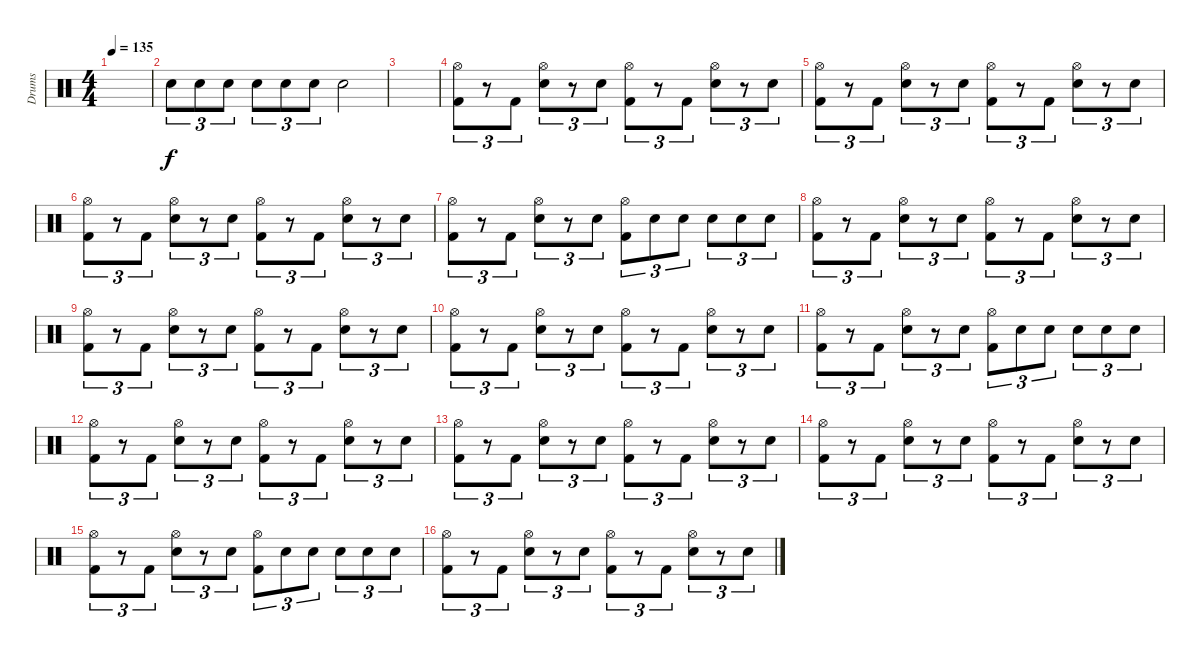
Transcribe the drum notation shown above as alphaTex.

\track ("Drums" "Drums") {instrument percussion}
\staff {score}
\articulation defaults
\ts (4 4)
\tempo 135
\clef neutral
\ks c
|
"Snare (hit) 2".8{tu (3 2)} "Snare (hit) 2".8{tu (3 2)} "Snare (hit) 2".8{tu (3 2)} "Snare (hit) 2".8{tu (3 2)} "Snare (hit) 2".8{tu (3 2)} "Snare (hit) 2".8{tu (3 2)} "Snare (hit) 2".2 |
|
("Kick (hit) 2" "Hi-Hat (open)").8{tu (3 2)} r.8{tu (3 2)} "Kick (hit) 2".8{tu (3 2)} ("Snare (hit) 2" "Hi-Hat (open)").8{tu (3 2)} r.8{tu (3 2)} "Snare (hit) 2".8{tu (3 2)} ("Kick (hit) 2" "Hi-Hat (open)").8{tu (3 2)} r.8{tu (3 2)} "Kick (hit) 2".8{tu (3 2)} ("Snare (hit) 2" "Hi-Hat (open)").8{tu (3 2)} r.8{tu (3 2)} "Snare (hit) 2".8{tu (3 2)} |
("Kick (hit) 2" "Hi-Hat (open)").8{tu (3 2)} r.8{tu (3 2)} "Kick (hit) 2".8{tu (3 2)} ("Snare (hit) 2" "Hi-Hat (open)").8{tu (3 2)} r.8{tu (3 2)} "Snare (hit) 2".8{tu (3 2)} ("Kick (hit) 2" "Hi-Hat (open)").8{tu (3 2)} r.8{tu (3 2)} "Kick (hit) 2".8{tu (3 2)} ("Snare (hit) 2" "Hi-Hat (open)").8{tu (3 2)} r.8{tu (3 2)} "Snare (hit) 2".8{tu (3 2)} |
("Kick (hit) 2" "Hi-Hat (open)").8{tu (3 2)} r.8{tu (3 2)} "Kick (hit) 2".8{tu (3 2)} ("Snare (hit) 2" "Hi-Hat (open)").8{tu (3 2)} r.8{tu (3 2)} "Snare (hit) 2".8{tu (3 2)} ("Kick (hit) 2" "Hi-Hat (open)").8{tu (3 2)} r.8{tu (3 2)} "Kick (hit) 2".8{tu (3 2)} ("Snare (hit) 2" "Hi-Hat (open)").8{tu (3 2)} r.8{tu (3 2)} "Snare (hit) 2".8{tu (3 2)} |
("Kick (hit) 2" "Hi-Hat (open)").8{tu (3 2)} r.8{tu (3 2)} "Kick (hit) 2".8{tu (3 2)} ("Snare (hit) 2" "Hi-Hat (open)").8{tu (3 2)} r.8{tu (3 2)} "Snare (hit) 2".8{tu (3 2)} ("Kick (hit) 2" "Hi-Hat (open)").8{tu (3 2)} "Snare (hit) 2".8{tu (3 2)} "Snare (hit) 2".8{tu (3 2)} "Snare (hit) 2".8{tu (3 2)} "Snare (hit) 2".8{tu (3 2)} "Snare (hit) 2".8{tu (3 2)} |
("Kick (hit) 2" "Hi-Hat (open)").8{tu (3 2)} r.8{tu (3 2)} "Kick (hit) 2".8{tu (3 2)} ("Snare (hit) 2" "Hi-Hat (open)").8{tu (3 2)} r.8{tu (3 2)} "Snare (hit) 2".8{tu (3 2)} ("Kick (hit) 2" "Hi-Hat (open)").8{tu (3 2)} r.8{tu (3 2)} "Kick (hit) 2".8{tu (3 2)} ("Snare (hit) 2" "Hi-Hat (open)").8{tu (3 2)} r.8{tu (3 2)} "Snare (hit) 2".8{tu (3 2)} |
("Kick (hit) 2" "Hi-Hat (open)").8{tu (3 2)} r.8{tu (3 2)} "Kick (hit) 2".8{tu (3 2)} ("Snare (hit) 2" "Hi-Hat (open)").8{tu (3 2)} r.8{tu (3 2)} "Snare (hit) 2".8{tu (3 2)} ("Kick (hit) 2" "Hi-Hat (open)").8{tu (3 2)} r.8{tu (3 2)} "Kick (hit) 2".8{tu (3 2)} ("Snare (hit) 2" "Hi-Hat (open)").8{tu (3 2)} r.8{tu (3 2)} "Snare (hit) 2".8{tu (3 2)} |
("Kick (hit) 2" "Hi-Hat (open)").8{tu (3 2)} r.8{tu (3 2)} "Kick (hit) 2".8{tu (3 2)} ("Snare (hit) 2" "Hi-Hat (open)").8{tu (3 2)} r.8{tu (3 2)} "Snare (hit) 2".8{tu (3 2)} ("Kick (hit) 2" "Hi-Hat (open)").8{tu (3 2)} r.8{tu (3 2)} "Kick (hit) 2".8{tu (3 2)} ("Snare (hit) 2" "Hi-Hat (open)").8{tu (3 2)} r.8{tu (3 2)} "Snare (hit) 2".8{tu (3 2)} |
("Kick (hit) 2" "Hi-Hat (open)").8{tu (3 2)} r.8{tu (3 2)} "Kick (hit) 2".8{tu (3 2)} ("Snare (hit) 2" "Hi-Hat (open)").8{tu (3 2)} r.8{tu (3 2)} "Snare (hit) 2".8{tu (3 2)} ("Kick (hit) 2" "Hi-Hat (open)").8{tu (3 2)} "Snare (hit) 2".8{tu (3 2)} "Snare (hit) 2".8{tu (3 2)} "Snare (hit) 2".8{tu (3 2)} "Snare (hit) 2".8{tu (3 2)} "Snare (hit) 2".8{tu (3 2)} |
("Kick (hit) 2" "Hi-Hat (open)").8{tu (3 2)} r.8{tu (3 2)} "Kick (hit) 2".8{tu (3 2)} ("Snare (hit) 2" "Hi-Hat (open)").8{tu (3 2)} r.8{tu (3 2)} "Snare (hit) 2".8{tu (3 2)} ("Kick (hit) 2" "Hi-Hat (open)").8{tu (3 2)} r.8{tu (3 2)} "Kick (hit) 2".8{tu (3 2)} ("Snare (hit) 2" "Hi-Hat (open)").8{tu (3 2)} r.8{tu (3 2)} "Snare (hit) 2".8{tu (3 2)} |
("Kick (hit) 2" "Hi-Hat (open)").8{tu (3 2)} r.8{tu (3 2)} "Kick (hit) 2".8{tu (3 2)} ("Snare (hit) 2" "Hi-Hat (open)").8{tu (3 2)} r.8{tu (3 2)} "Snare (hit) 2".8{tu (3 2)} ("Kick (hit) 2" "Hi-Hat (open)").8{tu (3 2)} r.8{tu (3 2)} "Kick (hit) 2".8{tu (3 2)} ("Snare (hit) 2" "Hi-Hat (open)").8{tu (3 2)} r.8{tu (3 2)} "Snare (hit) 2".8{tu (3 2)} |
("Kick (hit) 2" "Hi-Hat (open)").8{tu (3 2)} r.8{tu (3 2)} "Kick (hit) 2".8{tu (3 2)} ("Snare (hit) 2" "Hi-Hat (open)").8{tu (3 2)} r.8{tu (3 2)} "Snare (hit) 2".8{tu (3 2)} ("Kick (hit) 2" "Hi-Hat (open)").8{tu (3 2)} r.8{tu (3 2)} "Kick (hit) 2".8{tu (3 2)} ("Snare (hit) 2" "Hi-Hat (open)").8{tu (3 2)} r.8{tu (3 2)} "Snare (hit) 2".8{tu (3 2)} |
("Kick (hit) 2" "Hi-Hat (open)").8{tu (3 2)} r.8{tu (3 2)} "Kick (hit) 2".8{tu (3 2)} ("Snare (hit) 2" "Hi-Hat (open)").8{tu (3 2)} r.8{tu (3 2)} "Snare (hit) 2".8{tu (3 2)} ("Kick (hit) 2" "Hi-Hat (open)").8{tu (3 2)} "Snare (hit) 2".8{tu (3 2)} "Snare (hit) 2".8{tu (3 2)} "Snare (hit) 2".8{tu (3 2)} "Snare (hit) 2".8{tu (3 2)} "Snare (hit) 2".8{tu (3 2)} |
("Kick (hit) 2" "Hi-Hat (open)").8{tu (3 2)} r.8{tu (3 2)} "Kick (hit) 2".8{tu (3 2)} ("Snare (hit) 2" "Hi-Hat (open)").8{tu (3 2)} r.8{tu (3 2)} "Snare (hit) 2".8{tu (3 2)} ("Kick (hit) 2" "Hi-Hat (open)").8{tu (3 2)} r.8{tu (3 2)} "Kick (hit) 2".8{tu (3 2)} ("Snare (hit) 2" "Hi-Hat (open)").8{tu (3 2)} r.8{tu (3 2)} "Snare (hit) 2".8{tu (3 2)}
